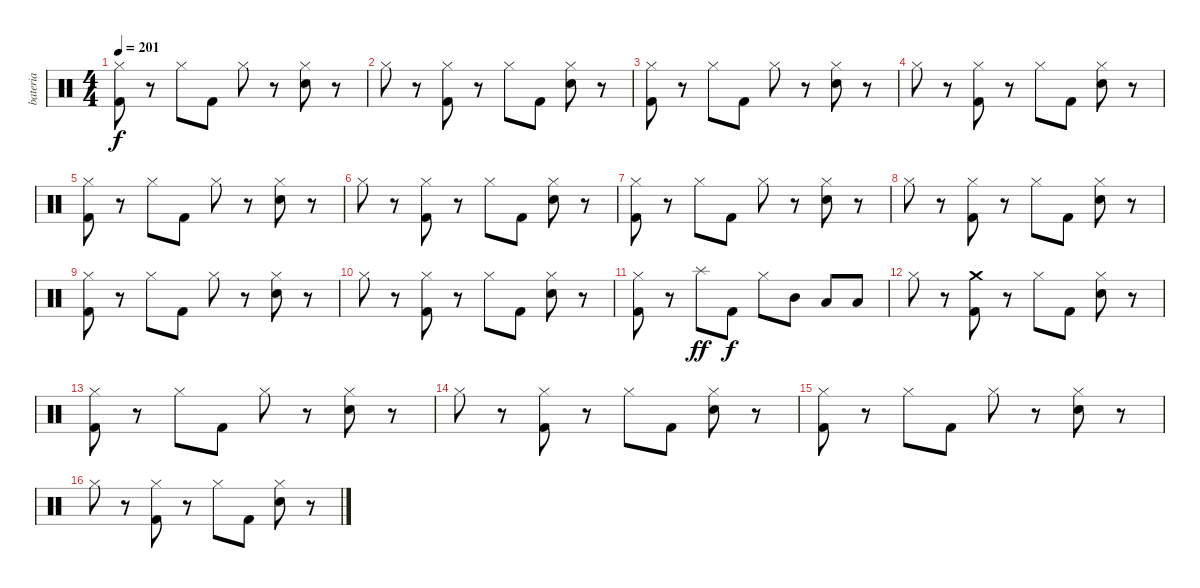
\track ("bateria" "bateria") {instrument percussion}
\staff {score}
\articulation defaults
\ts (4 4)
\tempo 201
\clef neutral
\ks c
("Hi-Hat (closed)" "Kick (hit) 2").8{dy f} r.8 "Hi-Hat (closed)".8 "Kick (hit) 2".8 "Hi-Hat (closed)".8 r.8 ("Hi-Hat (closed)" "Electric Snare (hit)").8 r.8 |
"Hi-Hat (closed)".8 r.8 ("Hi-Hat (closed)" "Kick (hit) 2").8 r.8 "Hi-Hat (closed)".8 "Kick (hit) 2".8 ("Hi-Hat (closed)" "Electric Snare (hit)").8 r.8 |
("Hi-Hat (closed)" "Kick (hit) 2").8 r.8 "Hi-Hat (closed)".8 "Kick (hit) 2".8 "Hi-Hat (closed)".8 r.8 ("Hi-Hat (closed)" "Electric Snare (hit)").8 r.8 |
"Hi-Hat (closed)".8 r.8 ("Hi-Hat (closed)" "Kick (hit) 2").8 r.8 "Hi-Hat (closed)".8 "Kick (hit) 2".8 ("Hi-Hat (closed)" "Electric Snare (hit)").8 r.8 |
("Hi-Hat (closed)" "Kick (hit) 2").8 r.8 "Hi-Hat (closed)".8 "Kick (hit) 2".8 "Hi-Hat (closed)".8 r.8 ("Hi-Hat (closed)" "Electric Snare (hit)").8 r.8 |
"Hi-Hat (closed)".8 r.8 ("Hi-Hat (closed)" "Kick (hit) 2").8 r.8 "Hi-Hat (closed)".8 "Kick (hit) 2".8 ("Hi-Hat (closed)" "Electric Snare (hit)").8 r.8 |
("Hi-Hat (closed)" "Kick (hit) 2").8 r.8 "Hi-Hat (closed)".8 "Kick (hit) 2".8 "Hi-Hat (closed)".8 r.8 ("Hi-Hat (closed)" "Electric Snare (hit)").8 r.8 |
"Hi-Hat (closed)".8 r.8 ("Hi-Hat (closed)" "Kick (hit) 2").8 r.8 "Hi-Hat (closed)".8 "Kick (hit) 2".8 ("Hi-Hat (closed)" "Electric Snare (hit)").8 r.8 |
("Hi-Hat (closed)" "Kick (hit) 2").8 r.8 "Hi-Hat (closed)".8 "Kick (hit) 2".8 "Hi-Hat (closed)".8 r.8 ("Hi-Hat (closed)" "Electric Snare (hit)").8 r.8 |
"Hi-Hat (closed)".8 r.8 ("Hi-Hat (closed)" "Kick (hit) 2").8 r.8 "Hi-Hat (closed)".8 "Kick (hit) 2".8 ("Hi-Hat (closed)" "Electric Snare (hit)").8 r.8 |
("Hi-Hat (closed)" "Kick (hit) 2").8 r.8 "Splash (hit)".8{dy ff} "Kick (hit) 2".8{dy f} "Hi-Hat (closed)".8 "Mid Tom (hit)".8 "Low Tom (hit)".8 "Low Tom (hit)".8 |
"Hi-Hat (closed)".8 r.8 ("Crash medium (hit)" "Kick (hit) 2").8 r.8 "Hi-Hat (closed)".8 "Kick (hit) 2".8 ("Hi-Hat (closed)" "Electric Snare (hit)").8 r.8 |
("Hi-Hat (closed)" "Kick (hit) 2").8 r.8 "Hi-Hat (closed)".8 "Kick (hit) 2".8 "Hi-Hat (closed)".8 r.8 ("Hi-Hat (closed)" "Electric Snare (hit)").8 r.8 |
"Hi-Hat (closed)".8 r.8 ("Hi-Hat (closed)" "Kick (hit) 2").8 r.8 "Hi-Hat (closed)".8 "Kick (hit) 2".8 ("Hi-Hat (closed)" "Electric Snare (hit)").8 r.8 |
("Hi-Hat (closed)" "Kick (hit) 2").8 r.8 "Hi-Hat (closed)".8 "Kick (hit) 2".8 "Hi-Hat (closed)".8 r.8 ("Hi-Hat (closed)" "Electric Snare (hit)").8 r.8 |
"Hi-Hat (closed)".8 r.8 ("Hi-Hat (closed)" "Kick (hit) 2").8 r.8 "Hi-Hat (closed)".8 "Kick (hit) 2".8 ("Hi-Hat (closed)" "Electric Snare (hit)").8 r.8
